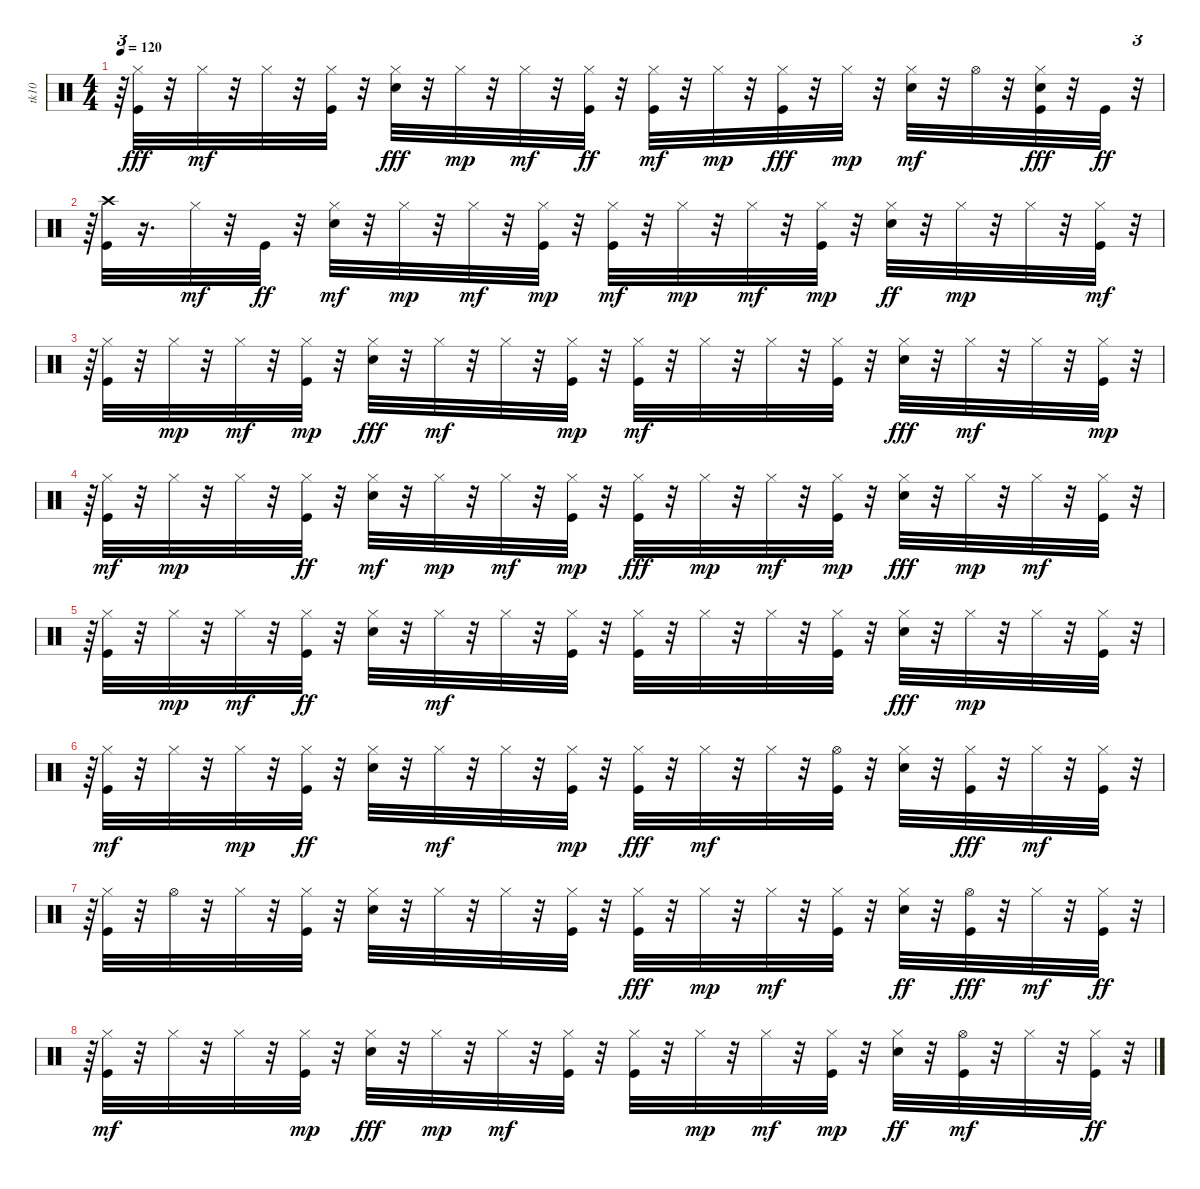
\track ("tk10" "tk10") {instrument percussion}
\staff {score}
\articulation defaults
\ts (4 4)
\tempo 120
\clef neutral
\ks c
r.64{tu (3 2) dy ff} ("Hi-Hat (closed)" "Kick (hit)").32{dy fff} r.32 "Hi-Hat (closed)".32{dy mf} r.32 "Hi-Hat (closed)".32 r.32 ("Kick (hit)" "Hi-Hat (closed)").32 r.32 ("Hi-Hat (closed)" "Snare (hit) 2").32{dy fff} r.32 "Hi-Hat (closed)".32{dy mp} r.32 "Hi-Hat (closed)".32{dy mf} r.32 ("Hi-Hat (closed)" "Kick (hit)").32{dy ff} r.32 ("Kick (hit)" "Hi-Hat (closed)").32{dy mf} r.32 "Hi-Hat (closed)".32{dy mp} r.32 ("Hi-Hat (closed)" "Kick (hit)").32{dy fff} r.32 "Hi-Hat (closed)".32{dy mp} r.32 ("Snare (hit) 2" "Hi-Hat (closed)").32{dy mf} r.32 "Hi-Hat (open)".32 r.32 ("Snare (hit) 2" "Hi-Hat (closed)" "Kick (hit)").32{dy fff} r.32 "Kick (hit)".32{dy ff} r.32{tu (3 2)} |
r.64{tu (3 2)} ("Kick (hit)" "Crash high (hit)").32 r.16{d} "Hi-Hat (closed)".32{dy mf} r.32 "Kick (hit)".32{dy ff} r.32 ("Snare (hit) 2" "Hi-Hat (closed)").32{dy mf} r.32 "Hi-Hat (closed)".32{dy mp} r.32 "Hi-Hat (closed)".32{dy mf} r.32 ("Kick (hit)" "Hi-Hat (closed)").32{dy mp} r.32 ("Kick (hit)" "Hi-Hat (closed)").32{dy mf} r.32 "Hi-Hat (closed)".32{dy mp} r.32 "Hi-Hat (closed)".32{dy mf} r.32 ("Kick (hit)" "Hi-Hat (closed)").32{dy mp} r.32 ("Hi-Hat (closed)" "Snare (hit) 2").32{dy ff} r.32 "Hi-Hat (closed)".32{dy mp} r.32 "Hi-Hat (closed)".32 r.32 ("Kick (hit)" "Hi-Hat (closed)").32{dy mf} r.32{tu (3 2)} |
r.64{tu (3 2)} ("Kick (hit)" "Hi-Hat (closed)").32 r.32 "Hi-Hat (closed)".32{dy mp} r.32 "Hi-Hat (closed)".32{dy mf} r.32 ("Hi-Hat (closed)" "Kick (hit)").32{dy mp} r.32 ("Hi-Hat (closed)" "Snare (hit) 2").32{dy fff} r.32 "Hi-Hat (closed)".32{dy mf} r.32 "Hi-Hat (closed)".32 r.32 ("Kick (hit)" "Hi-Hat (closed)").32{dy mp} r.32 ("Kick (hit)" "Hi-Hat (closed)").32{dy mf} r.32 "Hi-Hat (closed)".32 r.32 "Hi-Hat (closed)".32 r.32 ("Kick (hit)" "Hi-Hat (closed)").32 r.32 ("Hi-Hat (closed)" "Snare (hit) 2").32{dy fff} r.32 "Hi-Hat (closed)".32{dy mf} r.32 "Hi-Hat (closed)".32 r.32 ("Kick (hit)" "Hi-Hat (closed)").32{dy mp} r.32{tu (3 2)} |
r.64{tu (3 2)} ("Kick (hit)" "Hi-Hat (closed)").32{dy mf} r.32 "Hi-Hat (closed)".32{dy mp} r.32 "Hi-Hat (closed)".32 r.32 ("Hi-Hat (closed)" "Kick (hit)").32{dy ff} r.32 ("Snare (hit) 2" "Hi-Hat (closed)").32{dy mf} r.32 "Hi-Hat (closed)".32{dy mp} r.32 "Hi-Hat (closed)".32{dy mf} r.32 ("Kick (hit)" "Hi-Hat (closed)").32{dy mp} r.32 ("Hi-Hat (closed)" "Kick (hit)").32{dy fff} r.32 "Hi-Hat (closed)".32{dy mp} r.32 "Hi-Hat (closed)".32{dy mf} r.32 ("Kick (hit)" "Hi-Hat (closed)").32{dy mp} r.32 ("Hi-Hat (closed)" "Snare (hit) 2").32{dy fff} r.32 "Hi-Hat (closed)".32{dy mp} r.32 "Hi-Hat (closed)".32{dy mf} r.32 ("Kick (hit)" "Hi-Hat (closed)").32 r.32{tu (3 2)} |
r.64{tu (3 2)} ("Kick (hit)" "Hi-Hat (closed)").32 r.32 "Hi-Hat (closed)".32{dy mp} r.32 "Hi-Hat (closed)".32{dy mf} r.32 ("Hi-Hat (closed)" "Kick (hit)").32{dy ff} r.32 ("Hi-Hat (closed)" "Snare (hit) 2").32 r.32 "Hi-Hat (closed)".32{dy mf} r.32 "Hi-Hat (closed)".32 r.32 ("Kick (hit)" "Hi-Hat (closed)").32 r.32 ("Kick (hit)" "Hi-Hat (closed)").32 r.32 "Hi-Hat (closed)".32 r.32 "Hi-Hat (closed)".32 r.32 ("Kick (hit)" "Hi-Hat (closed)").32 r.32 ("Hi-Hat (closed)" "Snare (hit) 2").32{dy fff} r.32 "Hi-Hat (closed)".32{dy mp} r.32 "Hi-Hat (closed)".32 r.32 ("Kick (hit)" "Hi-Hat (closed)").32 r.32{tu (3 2)} |
r.64{tu (3 2)} ("Kick (hit)" "Hi-Hat (closed)").32{dy mf} r.32 "Hi-Hat (closed)".32 r.32 "Hi-Hat (closed)".32{dy mp} r.32 ("Hi-Hat (closed)" "Kick (hit)").32{dy ff} r.32 ("Hi-Hat (closed)" "Snare (hit) 2").32 r.32 "Hi-Hat (closed)".32{dy mf} r.32 "Hi-Hat (closed)".32 r.32 ("Kick (hit)" "Hi-Hat (closed)").32{dy mp} r.32 ("Hi-Hat (closed)" "Kick (hit)").32{dy fff} r.32 "Hi-Hat (closed)".32{dy mf} r.32 "Hi-Hat (closed)".32 r.32 ("Kick (hit)" "Hi-Hat (open)").32 r.32 ("Snare (hit) 2" "Hi-Hat (closed)").32 r.32 ("Hi-Hat (closed)" "Kick (hit)").32{dy fff} r.32 "Hi-Hat (closed)".32{dy mf} r.32 ("Kick (hit)" "Hi-Hat (closed)").32 r.32{tu (3 2)} |
r.64{tu (3 2)} ("Kick (hit)" "Hi-Hat (closed)").32 r.32 "Hi-Hat (open)".32 r.32 "Hi-Hat (closed)".32 r.32 ("Kick (hit)" "Hi-Hat (closed)").32 r.32 ("Snare (hit) 2" "Hi-Hat (closed)").32 r.32 "Hi-Hat (closed)".32 r.32 "Hi-Hat (closed)".32 r.32 ("Kick (hit)" "Hi-Hat (closed)").32 r.32 ("Hi-Hat (closed)" "Kick (hit)").32{dy fff} r.32 "Hi-Hat (closed)".32{dy mp} r.32 "Hi-Hat (closed)".32{dy mf} r.32 ("Kick (hit)" "Hi-Hat (closed)").32 r.32 ("Hi-Hat (closed)" "Snare (hit) 2").32{dy ff} r.32 ("Hi-Hat (open)" "Kick (hit)").32{dy fff} r.32 "Hi-Hat (closed)".32{dy mf} r.32 ("Hi-Hat (closed)" "Kick (hit)").32{dy ff} r.32{tu (3 2)} |
r.64{tu (3 2)} ("Kick (hit)" "Hi-Hat (closed)").32{dy mf} r.32 "Hi-Hat (closed)".32 r.32 "Hi-Hat (closed)".32 r.32 ("Kick (hit)" "Hi-Hat (closed)").32{dy mp} r.32 ("Hi-Hat (closed)" "Snare (hit) 2").32{dy fff} r.32 "Hi-Hat (closed)".32{dy mp} r.32 "Hi-Hat (closed)".32{dy mf} r.32 ("Kick (hit)" "Hi-Hat (closed)").32 r.32 ("Kick (hit)" "Hi-Hat (closed)").32 r.32 "Hi-Hat (closed)".32{dy mp} r.32 "Hi-Hat (closed)".32{dy mf} r.32 ("Kick (hit)" "Hi-Hat (closed)").32{dy mp} r.32 ("Hi-Hat (closed)" "Snare (hit) 2").32{dy ff} r.32 ("Kick (hit)" "Hi-Hat (open)").32{dy mf} r.32 "Hi-Hat (closed)".32 r.32 ("Hi-Hat (closed)" "Kick (hit)").32{dy ff} r.32{tu (3 2)}
